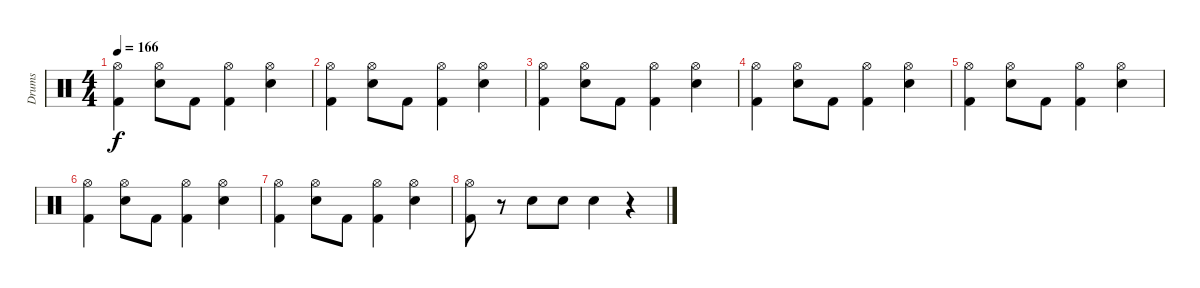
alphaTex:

\track ("Drums" "Drums") {instrument percussion}
\staff {score}
\articulation defaults
\ts (4 4)
\tempo 166
\clef neutral
\ks c
("Hi-Hat (open)" "Kick (hit) 2").4{dy f} ("Hi-Hat (open)" "Snare (hit) 2").8 "Kick (hit) 2".8 ("Hi-Hat (open)" "Kick (hit) 2").4 ("Hi-Hat (open)" "Snare (hit) 2").4 |
("Hi-Hat (open)" "Kick (hit) 2").4 ("Hi-Hat (open)" "Snare (hit) 2").8 "Kick (hit) 2".8 ("Hi-Hat (open)" "Kick (hit) 2").4 ("Hi-Hat (open)" "Snare (hit) 2").4 |
("Hi-Hat (open)" "Kick (hit) 2").4 ("Hi-Hat (open)" "Snare (hit) 2").8 "Kick (hit) 2".8 ("Hi-Hat (open)" "Kick (hit) 2").4 ("Hi-Hat (open)" "Snare (hit) 2").4 |
("Hi-Hat (open)" "Kick (hit) 2").4 ("Hi-Hat (open)" "Snare (hit) 2").8 "Kick (hit) 2".8 ("Hi-Hat (open)" "Kick (hit) 2").4 ("Hi-Hat (open)" "Snare (hit) 2").4 |
("Hi-Hat (open)" "Kick (hit) 2").4 ("Hi-Hat (open)" "Snare (hit) 2").8 "Kick (hit) 2".8 ("Hi-Hat (open)" "Kick (hit) 2").4 ("Hi-Hat (open)" "Snare (hit) 2").4 |
("Hi-Hat (open)" "Kick (hit) 2").4 ("Hi-Hat (open)" "Snare (hit) 2").8 "Kick (hit) 2".8 ("Hi-Hat (open)" "Kick (hit) 2").4 ("Hi-Hat (open)" "Snare (hit) 2").4 |
("Hi-Hat (open)" "Kick (hit) 2").4 ("Hi-Hat (open)" "Snare (hit) 2").8 "Kick (hit) 2".8 ("Hi-Hat (open)" "Kick (hit) 2").4 ("Hi-Hat (open)" "Snare (hit) 2").4 |
("Hi-Hat (open)" "Kick (hit) 2").8 r.8 "Snare (hit) 2".8 "Snare (hit) 2".8 "Snare (hit) 2".4 r.4
